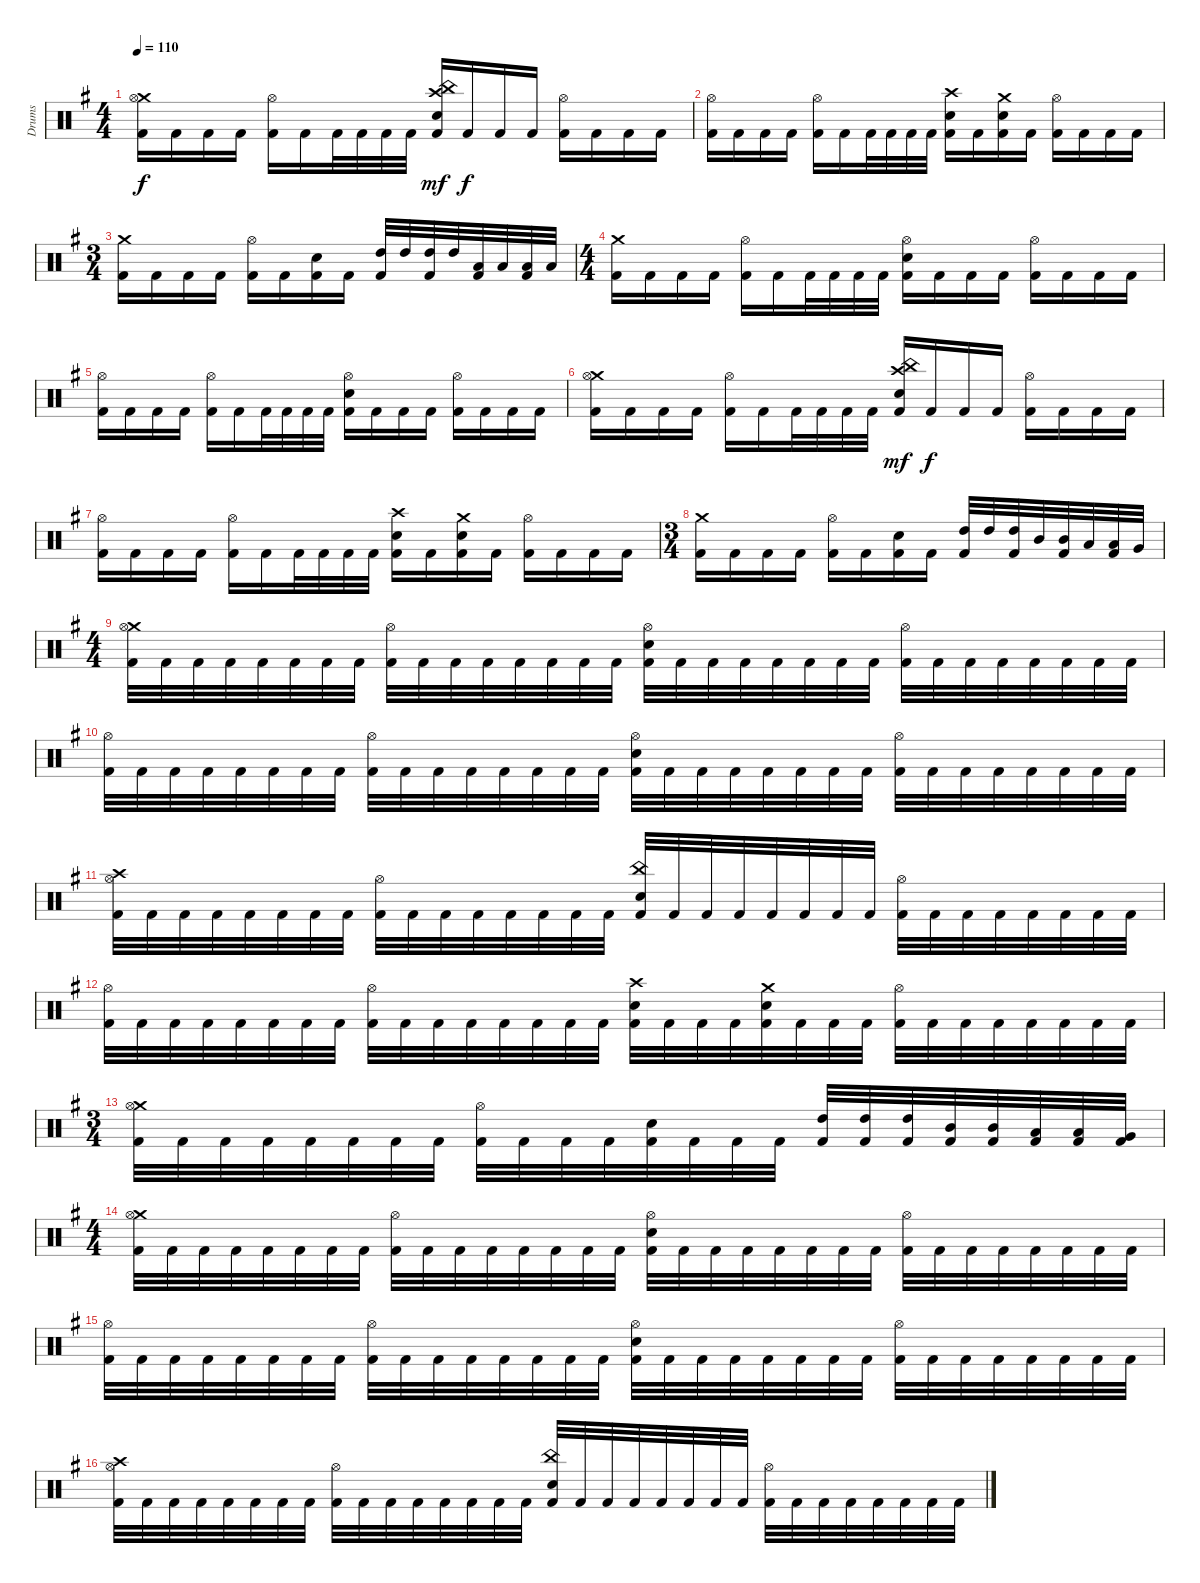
\track ("Drums" "Drums") {instrument percussion}
\staff {score}
\articulation defaults
\ts (4 4)
\tempo 110
\clef neutral
\ks eminor
("Crash medium (hit)" "Hi-Hat (open)" "Kick (hit) 2").16{dy f} "Kick (hit) 2".16 "Kick (hit) 2".16 "Kick (hit) 2".16 ("Hi-Hat (open)" "Kick (hit) 2").16 "Kick (hit) 2".16 "Kick (hit) 2".32 "Kick (hit) 2".32 "Kick (hit) 2".32 "Kick (hit) 2".32 ("China (hit)" "Crash high (hit)" "Electric Snare (hit)" "Kick (hit) 2").16{dy mf} "Kick (hit) 2".16{dy f} "Kick (hit) 2".16 "Kick (hit) 2".16 ("Hi-Hat (open)" "Kick (hit) 2").16 "Kick (hit) 2".16 "Kick (hit) 2".16 "Kick (hit) 2".16 |
("Hi-Hat (open)" "Kick (hit) 2").16 "Kick (hit) 2".16 "Kick (hit) 2".16 "Kick (hit) 2".16 ("Hi-Hat (open)" "Kick (hit) 2").16 "Kick (hit) 2".16 "Kick (hit) 2".32 "Kick (hit) 2".32 "Kick (hit) 2".32 "Kick (hit) 2".32 ("Crash high (hit)" "Electric Snare (hit)" "Kick (hit) 2").16 "Kick (hit) 2".16 ("Crash medium (hit)" "Electric Snare (hit)" "Kick (hit) 2").16 "Kick (hit) 2".16 ("Hi-Hat (open)" "Kick (hit) 2").16 "Kick (hit) 2".16 "Kick (hit) 2".16 "Kick (hit) 2".16 |
\ts (3 4)
("Crash medium (hit)" "Kick (hit) 2").16 "Kick (hit) 2".16 "Kick (hit) 2".16 "Kick (hit) 2".16 ("Hi-Hat (open)" "Kick (hit) 2").16 "Kick (hit) 2".16 ("Electric Snare (hit)" "Kick (hit) 2").16 "Kick (hit) 2".16 ("High Tom (hit)" "Kick (hit) 2").32 "High Tom (hit)".32 ("High Tom (hit)" "Kick (hit) 2").32 "High Tom (hit)".32 ("Low Tom (hit)" "Kick (hit) 2").32 "Low Tom (hit)".32 ("Low Tom (hit)" "Kick (hit) 2").32 "Low Tom (hit)".32 |
\ts (4 4)
("Crash medium (hit)" "Kick (hit) 2").16 "Kick (hit) 2".16 "Kick (hit) 2".16 "Kick (hit) 2".16 ("Hi-Hat (open)" "Kick (hit) 2").16 "Kick (hit) 2".16 "Kick (hit) 2".32 "Kick (hit) 2".32 "Kick (hit) 2".32 "Kick (hit) 2".32 ("Hi-Hat (open)" "Electric Snare (hit)" "Kick (hit) 2").16 "Kick (hit) 2".16 "Kick (hit) 2".16 "Kick (hit) 2".16 ("Hi-Hat (open)" "Kick (hit) 2").16 "Kick (hit) 2".16 "Kick (hit) 2".16 "Kick (hit) 2".16 |
("Hi-Hat (open)" "Kick (hit) 2").16 "Kick (hit) 2".16 "Kick (hit) 2".16 "Kick (hit) 2".16 ("Hi-Hat (open)" "Kick (hit) 2").16 "Kick (hit) 2".16 "Kick (hit) 2".32 "Kick (hit) 2".32 "Kick (hit) 2".32 "Kick (hit) 2".32 ("Hi-Hat (open)" "Electric Snare (hit)" "Kick (hit) 2").16 "Kick (hit) 2".16 "Kick (hit) 2".16 "Kick (hit) 2".16 ("Hi-Hat (open)" "Kick (hit) 2").16 "Kick (hit) 2".16 "Kick (hit) 2".16 "Kick (hit) 2".16 |
("Crash medium (hit)" "Hi-Hat (open)" "Kick (hit) 2").16 "Kick (hit) 2".16 "Kick (hit) 2".16 "Kick (hit) 2".16 ("Hi-Hat (open)" "Kick (hit) 2").16 "Kick (hit) 2".16 "Kick (hit) 2".32 "Kick (hit) 2".32 "Kick (hit) 2".32 "Kick (hit) 2".32 ("China (hit)" "Crash high (hit)" "Electric Snare (hit)" "Kick (hit) 2").16{dy mf} "Kick (hit) 2".16{dy f} "Kick (hit) 2".16 "Kick (hit) 2".16 ("Hi-Hat (open)" "Kick (hit) 2").16 "Kick (hit) 2".16 "Kick (hit) 2".16 "Kick (hit) 2".16 |
("Hi-Hat (open)" "Kick (hit) 2").16 "Kick (hit) 2".16 "Kick (hit) 2".16 "Kick (hit) 2".16 ("Hi-Hat (open)" "Kick (hit) 2").16 "Kick (hit) 2".16 "Kick (hit) 2".32 "Kick (hit) 2".32 "Kick (hit) 2".32 "Kick (hit) 2".32 ("Crash high (hit)" "Electric Snare (hit)" "Kick (hit) 2").16 "Kick (hit) 2".16 ("Crash medium (hit)" "Electric Snare (hit)" "Kick (hit) 2").16 "Kick (hit) 2".16 ("Hi-Hat (open)" "Kick (hit) 2").16 "Kick (hit) 2".16 "Kick (hit) 2".16 "Kick (hit) 2".16 |
\ts (3 4)
("Crash medium (hit)" "Kick (hit) 2").16 "Kick (hit) 2".16 "Kick (hit) 2".16 "Kick (hit) 2".16 ("Hi-Hat (open)" "Kick (hit) 2").16 "Kick (hit) 2".16 ("Electric Snare (hit)" "Kick (hit) 2").16 "Kick (hit) 2".16 ("High Tom (hit)" "Kick (hit) 2").32 "High Tom (hit)".32 ("High Tom (hit)" "Kick (hit) 2").32 "Mid Tom (hit)".32 ("Mid Tom (hit)" "Kick (hit) 2").32 "Low Tom (hit)".32 ("Low Tom (hit)" "Kick (hit) 2").32 "Very Low Tom (hit)".32 |
\ts (4 4)
("Crash medium (hit)" "Hi-Hat (open)" "Kick (hit) 2").32 "Kick (hit) 2".32 "Kick (hit) 2".32 "Kick (hit) 2".32 "Kick (hit) 2".32 "Kick (hit) 2".32 "Kick (hit) 2".32 "Kick (hit) 2".32 ("Hi-Hat (open)" "Kick (hit) 2").32 "Kick (hit) 2".32 "Kick (hit) 2".32 "Kick (hit) 2".32 "Kick (hit) 2".32 "Kick (hit) 2".32 "Kick (hit) 2".32 "Kick (hit) 2".32 ("Hi-Hat (open)" "Electric Snare (hit)" "Kick (hit) 2").32 "Kick (hit) 2".32 "Kick (hit) 2".32 "Kick (hit) 2".32 "Kick (hit) 2".32 "Kick (hit) 2".32 "Kick (hit) 2".32 "Kick (hit) 2".32 ("Hi-Hat (open)" "Kick (hit) 2").32 "Kick (hit) 2".32 "Kick (hit) 2".32 "Kick (hit) 2".32 "Kick (hit) 2".32 "Kick (hit) 2".32 "Kick (hit) 2".32 "Kick (hit) 2".32 |
("Hi-Hat (open)" "Kick (hit) 2").32 "Kick (hit) 2".32 "Kick (hit) 2".32 "Kick (hit) 2".32 "Kick (hit) 2".32 "Kick (hit) 2".32 "Kick (hit) 2".32 "Kick (hit) 2".32 ("Hi-Hat (open)" "Kick (hit) 2").32 "Kick (hit) 2".32 "Kick (hit) 2".32 "Kick (hit) 2".32 "Kick (hit) 2".32 "Kick (hit) 2".32 "Kick (hit) 2".32 "Kick (hit) 2".32 ("Hi-Hat (open)" "Electric Snare (hit)" "Kick (hit) 2").32 "Kick (hit) 2".32 "Kick (hit) 2".32 "Kick (hit) 2".32 "Kick (hit) 2".32 "Kick (hit) 2".32 "Kick (hit) 2".32 "Kick (hit) 2".32 ("Hi-Hat (open)" "Kick (hit) 2").32 "Kick (hit) 2".32 "Kick (hit) 2".32 "Kick (hit) 2".32 "Kick (hit) 2".32 "Kick (hit) 2".32 "Kick (hit) 2".32 "Kick (hit) 2".32 |
("Crash high (hit)" "Hi-Hat (open)" "Kick (hit) 2").32 "Kick (hit) 2".32 "Kick (hit) 2".32 "Kick (hit) 2".32 "Kick (hit) 2".32 "Kick (hit) 2".32 "Kick (hit) 2".32 "Kick (hit) 2".32 ("Hi-Hat (open)" "Kick (hit) 2").32 "Kick (hit) 2".32 "Kick (hit) 2".32 "Kick (hit) 2".32 "Kick (hit) 2".32 "Kick (hit) 2".32 "Kick (hit) 2".32 "Kick (hit) 2".32 ("China (hit)" "Electric Snare (hit)" "Kick (hit) 2").32 "Kick (hit) 2".32 "Kick (hit) 2".32 "Kick (hit) 2".32 "Kick (hit) 2".32 "Kick (hit) 2".32 "Kick (hit) 2".32 "Kick (hit) 2".32 ("Hi-Hat (open)" "Kick (hit) 2").32 "Kick (hit) 2".32 "Kick (hit) 2".32 "Kick (hit) 2".32 "Kick (hit) 2".32 "Kick (hit) 2".32 "Kick (hit) 2".32 "Kick (hit) 2".32 |
("Hi-Hat (open)" "Kick (hit) 2").32 "Kick (hit) 2".32 "Kick (hit) 2".32 "Kick (hit) 2".32 "Kick (hit) 2".32 "Kick (hit) 2".32 "Kick (hit) 2".32 "Kick (hit) 2".32 ("Hi-Hat (open)" "Kick (hit) 2").32 "Kick (hit) 2".32 "Kick (hit) 2".32 "Kick (hit) 2".32 "Kick (hit) 2".32 "Kick (hit) 2".32 "Kick (hit) 2".32 "Kick (hit) 2".32 ("Crash high (hit)" "Electric Snare (hit)" "Kick (hit) 2").32 "Kick (hit) 2".32 "Kick (hit) 2".32 "Kick (hit) 2".32 ("Crash medium (hit)" "Electric Snare (hit)" "Kick (hit) 2").32 "Kick (hit) 2".32 "Kick (hit) 2".32 "Kick (hit) 2".32 ("Hi-Hat (open)" "Kick (hit) 2").32 "Kick (hit) 2".32 "Kick (hit) 2".32 "Kick (hit) 2".32 "Kick (hit) 2".32 "Kick (hit) 2".32 "Kick (hit) 2".32 "Kick (hit) 2".32 |
\ts (3 4)
("Crash medium (hit)" "Hi-Hat (open)" "Kick (hit) 2").32 "Kick (hit) 2".32 "Kick (hit) 2".32 "Kick (hit) 2".32 "Kick (hit) 2".32 "Kick (hit) 2".32 "Kick (hit) 2".32 "Kick (hit) 2".32 ("Hi-Hat (open)" "Kick (hit) 2").32 "Kick (hit) 2".32 "Kick (hit) 2".32 "Kick (hit) 2".32 ("Electric Snare (hit)" "Kick (hit) 2").32 "Kick (hit) 2".32 "Kick (hit) 2".32 "Kick (hit) 2".32 ("High Tom (hit)" "Kick (hit) 2").32 ("High Tom (hit)" "Kick (hit) 2").32 ("High Tom (hit)" "Kick (hit) 2").32 ("Mid Tom (hit)" "Kick (hit) 2").32 ("Mid Tom (hit)" "Kick (hit) 2").32 ("Low Tom (hit)" "Kick (hit) 2").32 ("Low Tom (hit)" "Kick (hit) 2").32 ("Very Low Tom (hit)" "Kick (hit) 2").32 |
\ts (4 4)
("Crash medium (hit)" "Hi-Hat (open)" "Kick (hit) 2").32 "Kick (hit) 2".32 "Kick (hit) 2".32 "Kick (hit) 2".32 "Kick (hit) 2".32 "Kick (hit) 2".32 "Kick (hit) 2".32 "Kick (hit) 2".32 ("Hi-Hat (open)" "Kick (hit) 2").32 "Kick (hit) 2".32 "Kick (hit) 2".32 "Kick (hit) 2".32 "Kick (hit) 2".32 "Kick (hit) 2".32 "Kick (hit) 2".32 "Kick (hit) 2".32 ("Hi-Hat (open)" "Electric Snare (hit)" "Kick (hit) 2").32 "Kick (hit) 2".32 "Kick (hit) 2".32 "Kick (hit) 2".32 "Kick (hit) 2".32 "Kick (hit) 2".32 "Kick (hit) 2".32 "Kick (hit) 2".32 ("Hi-Hat (open)" "Kick (hit) 2").32 "Kick (hit) 2".32 "Kick (hit) 2".32 "Kick (hit) 2".32 "Kick (hit) 2".32 "Kick (hit) 2".32 "Kick (hit) 2".32 "Kick (hit) 2".32 |
("Hi-Hat (open)" "Kick (hit) 2").32 "Kick (hit) 2".32 "Kick (hit) 2".32 "Kick (hit) 2".32 "Kick (hit) 2".32 "Kick (hit) 2".32 "Kick (hit) 2".32 "Kick (hit) 2".32 ("Hi-Hat (open)" "Kick (hit) 2").32 "Kick (hit) 2".32 "Kick (hit) 2".32 "Kick (hit) 2".32 "Kick (hit) 2".32 "Kick (hit) 2".32 "Kick (hit) 2".32 "Kick (hit) 2".32 ("Hi-Hat (open)" "Electric Snare (hit)" "Kick (hit) 2").32 "Kick (hit) 2".32 "Kick (hit) 2".32 "Kick (hit) 2".32 "Kick (hit) 2".32 "Kick (hit) 2".32 "Kick (hit) 2".32 "Kick (hit) 2".32 ("Hi-Hat (open)" "Kick (hit) 2").32 "Kick (hit) 2".32 "Kick (hit) 2".32 "Kick (hit) 2".32 "Kick (hit) 2".32 "Kick (hit) 2".32 "Kick (hit) 2".32 "Kick (hit) 2".32 |
("Crash high (hit)" "Hi-Hat (open)" "Kick (hit) 2").32 "Kick (hit) 2".32 "Kick (hit) 2".32 "Kick (hit) 2".32 "Kick (hit) 2".32 "Kick (hit) 2".32 "Kick (hit) 2".32 "Kick (hit) 2".32 ("Hi-Hat (open)" "Kick (hit) 2").32 "Kick (hit) 2".32 "Kick (hit) 2".32 "Kick (hit) 2".32 "Kick (hit) 2".32 "Kick (hit) 2".32 "Kick (hit) 2".32 "Kick (hit) 2".32 ("China (hit)" "Electric Snare (hit)" "Kick (hit) 2").32 "Kick (hit) 2".32 "Kick (hit) 2".32 "Kick (hit) 2".32 "Kick (hit) 2".32 "Kick (hit) 2".32 "Kick (hit) 2".32 "Kick (hit) 2".32 ("Hi-Hat (open)" "Kick (hit) 2").32 "Kick (hit) 2".32 "Kick (hit) 2".32 "Kick (hit) 2".32 "Kick (hit) 2".32 "Kick (hit) 2".32 "Kick (hit) 2".32 "Kick (hit) 2".32
